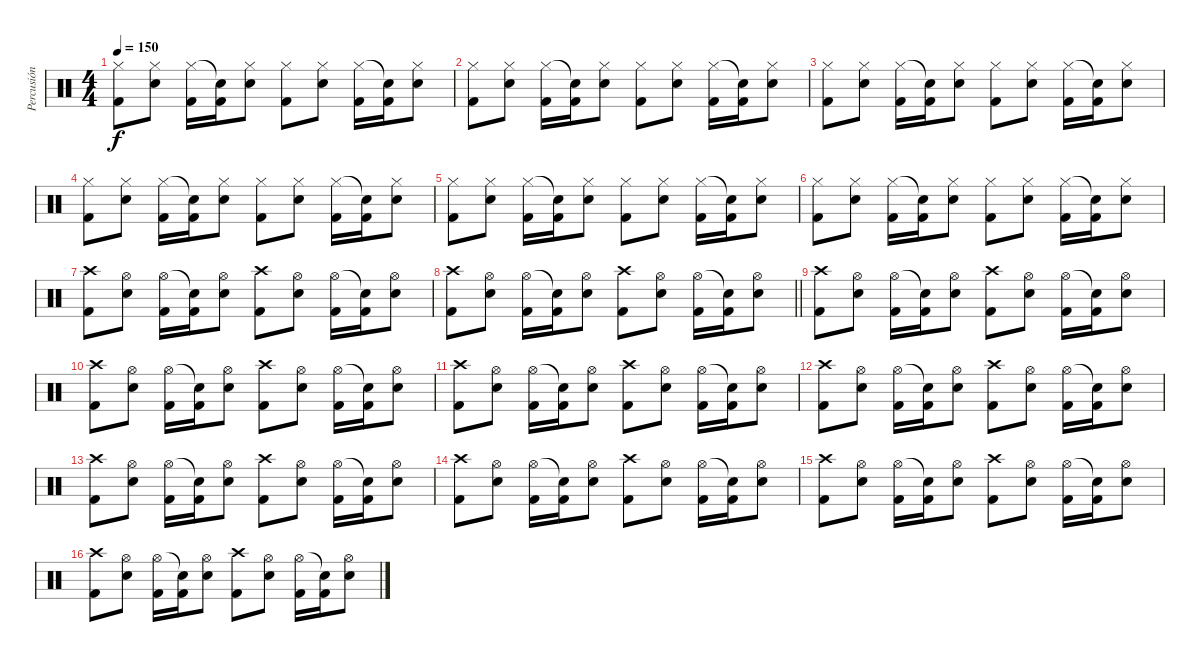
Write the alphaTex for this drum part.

\track ("Percusión" "Percusión") {instrument percussion}
\staff {score}
\articulation defaults
\ts (4 4)
\tempo 150
\clef neutral
\ks c
("Hi-Hat (closed)" "Kick (hit) 2").8{dy f} ("Hi-Hat (closed)" "Electric Snare (hit)").8 ("Hi-Hat (closed)" "Kick (hit) 2").16 ("Snare (hit)"{t} "Kick (hit) 2").16 ("Hi-Hat (closed)" "Electric Snare (hit)").8 ("Hi-Hat (closed)" "Kick (hit) 2").8 ("Hi-Hat (closed)" "Electric Snare (hit)").8 ("Hi-Hat (closed)" "Kick (hit) 2").16 ("Snare (hit)"{t} "Kick (hit) 2").16 ("Hi-Hat (closed)" "Electric Snare (hit)").8 |
("Hi-Hat (closed)" "Kick (hit) 2").8 ("Hi-Hat (closed)" "Electric Snare (hit)").8 ("Hi-Hat (closed)" "Kick (hit) 2").16 ("Snare (hit)"{t} "Kick (hit) 2").16 ("Hi-Hat (closed)" "Electric Snare (hit)").8 ("Hi-Hat (closed)" "Kick (hit) 2").8 ("Hi-Hat (closed)" "Electric Snare (hit)").8 ("Hi-Hat (closed)" "Kick (hit) 2").16 ("Snare (hit)"{t} "Kick (hit) 2").16 ("Hi-Hat (closed)" "Electric Snare (hit)").8 |
("Hi-Hat (closed)" "Kick (hit) 2").8 ("Hi-Hat (closed)" "Electric Snare (hit)").8 ("Hi-Hat (closed)" "Kick (hit) 2").16 ("Snare (hit)"{t} "Kick (hit) 2").16 ("Hi-Hat (closed)" "Electric Snare (hit)").8 ("Hi-Hat (closed)" "Kick (hit) 2").8 ("Hi-Hat (closed)" "Electric Snare (hit)").8 ("Hi-Hat (closed)" "Kick (hit) 2").16 ("Snare (hit)"{t} "Kick (hit) 2").16 ("Hi-Hat (closed)" "Electric Snare (hit)").8 |
("Hi-Hat (closed)" "Kick (hit) 2").8 ("Hi-Hat (closed)" "Electric Snare (hit)").8 ("Hi-Hat (closed)" "Kick (hit) 2").16 ("Snare (hit)"{t} "Kick (hit) 2").16 ("Hi-Hat (closed)" "Electric Snare (hit)").8 ("Hi-Hat (closed)" "Kick (hit) 2").8 ("Hi-Hat (closed)" "Electric Snare (hit)").8 ("Hi-Hat (closed)" "Kick (hit) 2").16 ("Snare (hit)"{t} "Kick (hit) 2").16 ("Hi-Hat (closed)" "Electric Snare (hit)").8 |
("Hi-Hat (closed)" "Kick (hit) 2").8 ("Hi-Hat (closed)" "Electric Snare (hit)").8 ("Hi-Hat (closed)" "Kick (hit) 2").16 ("Snare (hit)"{t} "Kick (hit) 2").16 ("Hi-Hat (closed)" "Electric Snare (hit)").8 ("Hi-Hat (closed)" "Kick (hit) 2").8 ("Hi-Hat (closed)" "Electric Snare (hit)").8 ("Hi-Hat (closed)" "Kick (hit) 2").16 ("Snare (hit)"{t} "Kick (hit) 2").16 ("Hi-Hat (closed)" "Electric Snare (hit)").8 |
("Hi-Hat (closed)" "Kick (hit) 2").8 ("Hi-Hat (closed)" "Electric Snare (hit)").8 ("Hi-Hat (closed)" "Kick (hit) 2").16 ("Snare (hit)"{t} "Kick (hit) 2").16 ("Hi-Hat (closed)" "Electric Snare (hit)").8 ("Hi-Hat (closed)" "Kick (hit) 2").8 ("Hi-Hat (closed)" "Electric Snare (hit)").8 ("Hi-Hat (closed)" "Kick (hit) 2").16 ("Snare (hit)"{t} "Kick (hit) 2").16 ("Hi-Hat (closed)" "Electric Snare (hit)").8 |
("Crash high (hit)" "Kick (hit) 2").8 ("Hi-Hat (open)" "Electric Snare (hit)").8 ("Hi-Hat (open)" "Kick (hit) 2").16 ("Snare (hit)"{t} "Kick (hit) 2").16 ("Hi-Hat (open)" "Electric Snare (hit)").8 ("Crash high (hit)" "Kick (hit) 2").8 ("Hi-Hat (open)" "Electric Snare (hit)").8 ("Hi-Hat (open)" "Kick (hit) 2").16 ("Snare (hit)"{t} "Kick (hit) 2").16 ("Hi-Hat (open)" "Electric Snare (hit)").8 |
\barLineRight lightlight
("Crash high (hit)" "Kick (hit) 2").8 ("Hi-Hat (open)" "Electric Snare (hit)").8 ("Hi-Hat (open)" "Kick (hit) 2").16 ("Snare (hit)"{t} "Kick (hit) 2").16 ("Hi-Hat (open)" "Electric Snare (hit)").8 ("Crash high (hit)" "Kick (hit) 2").8 ("Hi-Hat (open)" "Electric Snare (hit)").8 ("Hi-Hat (open)" "Kick (hit) 2").16 ("Snare (hit)"{t} "Kick (hit) 2").16 ("Hi-Hat (open)" "Electric Snare (hit)").8 |
("Crash high (hit)" "Kick (hit) 2").8 ("Hi-Hat (open)" "Electric Snare (hit)").8 ("Hi-Hat (open)" "Kick (hit) 2").16 ("Snare (hit)"{t} "Kick (hit) 2").16 ("Hi-Hat (open)" "Electric Snare (hit)").8 ("Crash high (hit)" "Kick (hit) 2").8 ("Hi-Hat (open)" "Electric Snare (hit)").8 ("Hi-Hat (open)" "Kick (hit) 2").16 ("Snare (hit)"{t} "Kick (hit) 2").16 ("Hi-Hat (open)" "Electric Snare (hit)").8 |
("Crash high (hit)" "Kick (hit) 2").8 ("Hi-Hat (open)" "Electric Snare (hit)").8 ("Hi-Hat (open)" "Kick (hit) 2").16 ("Snare (hit)"{t} "Kick (hit) 2").16 ("Hi-Hat (open)" "Electric Snare (hit)").8 ("Crash high (hit)" "Kick (hit) 2").8 ("Hi-Hat (open)" "Electric Snare (hit)").8 ("Hi-Hat (open)" "Kick (hit) 2").16 ("Snare (hit)"{t} "Kick (hit) 2").16 ("Hi-Hat (open)" "Electric Snare (hit)").8 |
("Crash high (hit)" "Kick (hit) 2").8 ("Hi-Hat (open)" "Electric Snare (hit)").8 ("Hi-Hat (open)" "Kick (hit) 2").16 ("Snare (hit)"{t} "Kick (hit) 2").16 ("Hi-Hat (open)" "Electric Snare (hit)").8 ("Crash high (hit)" "Kick (hit) 2").8 ("Hi-Hat (open)" "Electric Snare (hit)").8 ("Hi-Hat (open)" "Kick (hit) 2").16 ("Snare (hit)"{t} "Kick (hit) 2").16 ("Hi-Hat (open)" "Electric Snare (hit)").8 |
("Crash high (hit)" "Kick (hit) 2").8 ("Hi-Hat (open)" "Electric Snare (hit)").8 ("Hi-Hat (open)" "Kick (hit) 2").16 ("Snare (hit)"{t} "Kick (hit) 2").16 ("Hi-Hat (open)" "Electric Snare (hit)").8 ("Crash high (hit)" "Kick (hit) 2").8 ("Hi-Hat (open)" "Electric Snare (hit)").8 ("Hi-Hat (open)" "Kick (hit) 2").16 ("Snare (hit)"{t} "Kick (hit) 2").16 ("Hi-Hat (open)" "Electric Snare (hit)").8 |
("Crash high (hit)" "Kick (hit) 2").8 ("Hi-Hat (open)" "Electric Snare (hit)").8 ("Hi-Hat (open)" "Kick (hit) 2").16 ("Snare (hit)"{t} "Kick (hit) 2").16 ("Hi-Hat (open)" "Electric Snare (hit)").8 ("Crash high (hit)" "Kick (hit) 2").8 ("Hi-Hat (open)" "Electric Snare (hit)").8 ("Hi-Hat (open)" "Kick (hit) 2").16 ("Snare (hit)"{t} "Kick (hit) 2").16 ("Hi-Hat (open)" "Electric Snare (hit)").8 |
("Crash high (hit)" "Kick (hit) 2").8 ("Hi-Hat (open)" "Electric Snare (hit)").8 ("Hi-Hat (open)" "Kick (hit) 2").16 ("Snare (hit)"{t} "Kick (hit) 2").16 ("Hi-Hat (open)" "Electric Snare (hit)").8 ("Crash high (hit)" "Kick (hit) 2").8 ("Hi-Hat (open)" "Electric Snare (hit)").8 ("Hi-Hat (open)" "Kick (hit) 2").16 ("Snare (hit)"{t} "Kick (hit) 2").16 ("Hi-Hat (open)" "Electric Snare (hit)").8 |
("Crash high (hit)" "Kick (hit) 2").8 ("Hi-Hat (open)" "Electric Snare (hit)").8 ("Hi-Hat (open)" "Kick (hit) 2").16 ("Snare (hit)"{t} "Kick (hit) 2").16 ("Hi-Hat (open)" "Electric Snare (hit)").8 ("Crash high (hit)" "Kick (hit) 2").8 ("Hi-Hat (open)" "Electric Snare (hit)").8 ("Hi-Hat (open)" "Kick (hit) 2").16 ("Snare (hit)"{t} "Kick (hit) 2").16 ("Hi-Hat (open)" "Electric Snare (hit)").8 |
("Crash high (hit)" "Kick (hit) 2").8 ("Hi-Hat (open)" "Electric Snare (hit)").8 ("Hi-Hat (open)" "Kick (hit) 2").16 ("Snare (hit)"{t} "Kick (hit) 2").16 ("Hi-Hat (open)" "Electric Snare (hit)").8 ("Crash high (hit)" "Kick (hit) 2").8 ("Hi-Hat (open)" "Electric Snare (hit)").8 ("Hi-Hat (open)" "Kick (hit) 2").16 ("Snare (hit)"{t} "Kick (hit) 2").16 ("Hi-Hat (open)" "Electric Snare (hit)").8
